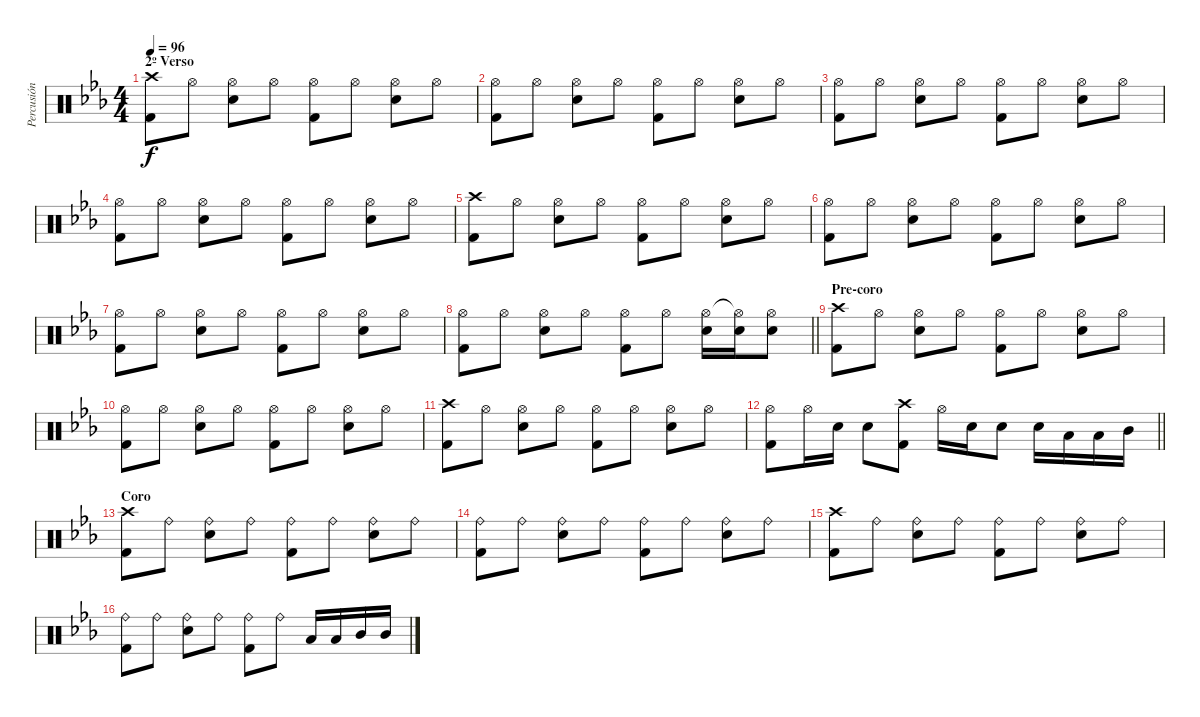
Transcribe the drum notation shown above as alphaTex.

\track ("Percusión" "Percusión") {instrument percussion}
\staff {score}
\articulation defaults
\ts (4 4)
\section ("" "2º Verso")
\tempo 96
\clef neutral
\ks eb
("Crash high (hit)" "Kick (hit) 2").8{dy f} "Hi-Hat (open)".8 ("Hi-Hat (open)" "Electric Snare (hit)").8 "Hi-Hat (open)".8 ("Hi-Hat (open)" "Kick (hit) 2").8 "Hi-Hat (open)".8 ("Hi-Hat (open)" "Electric Snare (hit)").8 "Hi-Hat (open)".8 |
("Hi-Hat (open)" "Kick (hit) 2").8 "Hi-Hat (open)".8 ("Hi-Hat (open)" "Electric Snare (hit)").8 "Hi-Hat (open)".8 ("Hi-Hat (open)" "Kick (hit) 2").8 "Hi-Hat (open)".8 ("Hi-Hat (open)" "Electric Snare (hit)").8 "Hi-Hat (open)".8 |
("Hi-Hat (open)" "Kick (hit) 2").8 "Hi-Hat (open)".8 ("Hi-Hat (open)" "Electric Snare (hit)").8 "Hi-Hat (open)".8 ("Hi-Hat (open)" "Kick (hit) 2").8 "Hi-Hat (open)".8 ("Hi-Hat (open)" "Electric Snare (hit)").8 "Hi-Hat (open)".8 |
("Hi-Hat (open)" "Kick (hit) 2").8 "Hi-Hat (open)".8 ("Hi-Hat (open)" "Electric Snare (hit)").8 "Hi-Hat (open)".8 ("Hi-Hat (open)" "Kick (hit) 2").8 "Hi-Hat (open)".8 ("Hi-Hat (open)" "Electric Snare (hit)").8 "Hi-Hat (open)".8 |
("Crash high (hit)" "Kick (hit) 2").8 "Hi-Hat (open)".8 ("Hi-Hat (open)" "Electric Snare (hit)").8 "Hi-Hat (open)".8 ("Hi-Hat (open)" "Kick (hit) 2").8 "Hi-Hat (open)".8 ("Hi-Hat (open)" "Electric Snare (hit)").8 "Hi-Hat (open)".8 |
("Hi-Hat (open)" "Kick (hit) 2").8 "Hi-Hat (open)".8 ("Hi-Hat (open)" "Electric Snare (hit)").8 "Hi-Hat (open)".8 ("Hi-Hat (open)" "Kick (hit) 2").8 "Hi-Hat (open)".8 ("Hi-Hat (open)" "Electric Snare (hit)").8 "Hi-Hat (open)".8 |
("Hi-Hat (open)" "Kick (hit) 2").8 "Hi-Hat (open)".8 ("Hi-Hat (open)" "Electric Snare (hit)").8 "Hi-Hat (open)".8 ("Hi-Hat (open)" "Kick (hit) 2").8 "Hi-Hat (open)".8 ("Hi-Hat (open)" "Electric Snare (hit)").8 "Hi-Hat (open)".8 |
\barLineRight lightlight
("Hi-Hat (open)" "Kick (hit) 2").8 "Hi-Hat (open)".8 ("Hi-Hat (open)" "Electric Snare (hit)").8 "Hi-Hat (open)".8 ("Hi-Hat (open)" "Kick (hit) 2").8 "Hi-Hat (open)".8 ("Hi-Hat (open)" "Electric Snare (hit)").16 ("Hi-Hat (open)"{t} "Electric Snare (hit)").16 ("Hi-Hat (open)" "Electric Snare (hit)").8 |
\section ("" "Pre-coro")
("Crash high (hit)" "Kick (hit) 2").8 "Hi-Hat (open)".8 ("Hi-Hat (open)" "Electric Snare (hit)").8 "Hi-Hat (open)".8 ("Hi-Hat (open)" "Kick (hit) 2").8 "Hi-Hat (open)".8 ("Hi-Hat (open)" "Electric Snare (hit)").8 "Hi-Hat (open)".8 |
("Hi-Hat (open)" "Kick (hit) 2").8 "Hi-Hat (open)".8 ("Hi-Hat (open)" "Electric Snare (hit)").8 "Hi-Hat (open)".8 ("Hi-Hat (open)" "Kick (hit) 2").8 "Hi-Hat (open)".8 ("Hi-Hat (open)" "Electric Snare (hit)").8 "Hi-Hat (open)".8 |
("Crash high (hit)" "Kick (hit) 2").8 "Hi-Hat (open)".8 ("Hi-Hat (open)" "Electric Snare (hit)").8 "Hi-Hat (open)".8 ("Hi-Hat (open)" "Kick (hit) 2").8 "Hi-Hat (open)".8 ("Hi-Hat (open)" "Electric Snare (hit)").8 "Hi-Hat (open)".8 |
\barLineRight lightlight
("Hi-Hat (open)" "Kick (hit) 2").8 "Hi-Hat (open)".16 "Electric Snare (hit)".16 "Electric Snare (hit)".8 ("Crash high (hit)" "Kick (hit) 2").8 "Hi-Hat (open)".16 "Electric Snare (hit)".16 "Electric Snare (hit)".8 "Electric Snare (hit)".16 "Low Tom (hit)".16 "Low Tom (hit)".16 "Mid Tom (hit)".16 |
\section ("" "Coro")
("Crash high (hit)" "Kick (hit) 2").8 "Ride (bell)".8 ("Ride (bell)" "Electric Snare (hit)").8 "Ride (bell)".8 ("Ride (bell)" "Kick (hit) 2").8 "Ride (bell)".8 ("Ride (bell)" "Electric Snare (hit)").8 "Ride (bell)".8 |
("Ride (bell)" "Kick (hit) 2").8 "Ride (bell)".8 ("Ride (bell)" "Electric Snare (hit)").8 "Ride (bell)".8 ("Ride (bell)" "Kick (hit) 2").8 "Ride (bell)".8 ("Ride (bell)" "Electric Snare (hit)").8 "Ride (bell)".8 |
("Crash high (hit)" "Kick (hit) 2").8 "Ride (bell)".8 ("Ride (bell)" "Electric Snare (hit)").8 "Ride (bell)".8 ("Ride (bell)" "Kick (hit) 2").8 "Ride (bell)".8 ("Ride (bell)" "Electric Snare (hit)").8 "Ride (bell)".8 |
("Ride (bell)" "Kick (hit) 2").8 "Ride (bell)".8 ("Ride (bell)" "Electric Snare (hit)").8 "Ride (bell)".8 ("Ride (bell)" "Kick (hit) 2").8 "Ride (bell)".8 "Low Tom (hit)".16 "Low Tom (hit)".16 "Mid Tom (hit)".16 "Mid Tom (hit)".16
